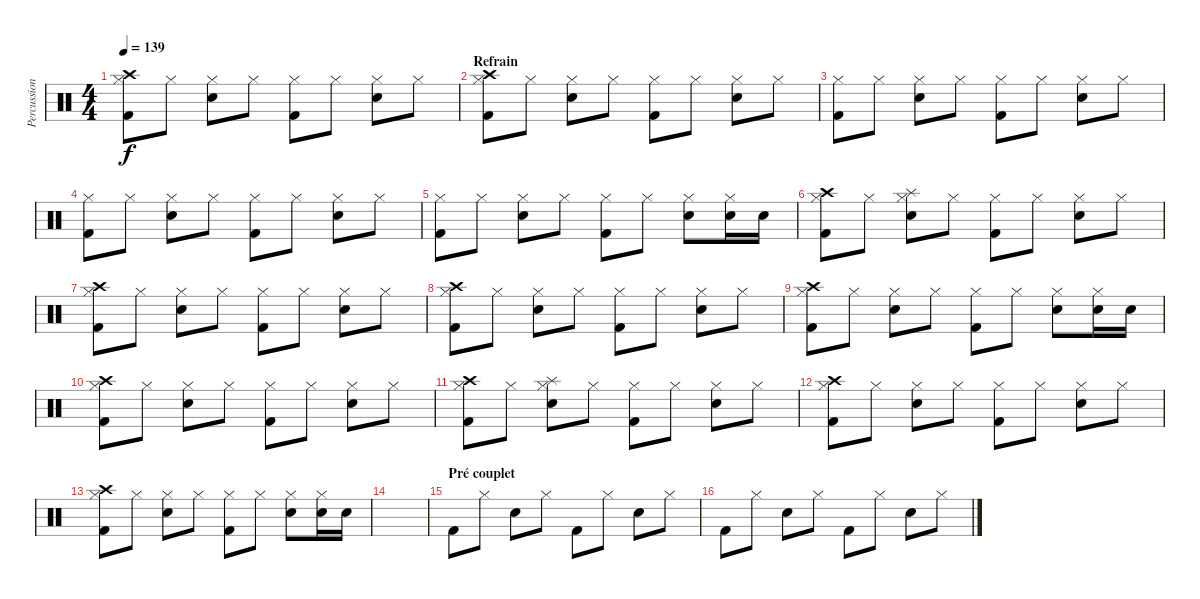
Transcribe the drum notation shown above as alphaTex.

\track ("Percussions" "Percussion") {instrument percussion}
\staff {score}
\articulation defaults
\ts (4 4)
\tempo 139
\clef neutral
\ks c
("Hi-Hat (closed)" "Crash high (hit)" "Kick (hit) 2").8{dy f} "Hi-Hat (closed)".8 ("Hi-Hat (closed)" "Snare (hit) 2").8 "Hi-Hat (closed)".8 ("Hi-Hat (closed)" "Kick (hit) 2").8 "Hi-Hat (closed)".8 ("Hi-Hat (closed)" "Snare (hit) 2").8 "Hi-Hat (closed)".8 |
\section ("" "Refrain")
("Hi-Hat (closed)" "Crash high (hit)" "Kick (hit) 2").8 "Hi-Hat (closed)".8 ("Hi-Hat (closed)" "Snare (hit) 2").8 "Hi-Hat (closed)".8 ("Hi-Hat (closed)" "Kick (hit) 2").8 "Hi-Hat (closed)".8 ("Hi-Hat (closed)" "Snare (hit) 2").8 "Hi-Hat (closed)".8 |
("Hi-Hat (closed)" "Kick (hit) 2").8 "Hi-Hat (closed)".8 ("Hi-Hat (closed)" "Snare (hit) 2").8 "Hi-Hat (closed)".8 ("Hi-Hat (closed)" "Kick (hit) 2").8 "Hi-Hat (closed)".8 ("Hi-Hat (closed)" "Snare (hit) 2").8 "Hi-Hat (closed)".8 |
("Hi-Hat (closed)" "Kick (hit) 2").8 "Hi-Hat (closed)".8 ("Hi-Hat (closed)" "Snare (hit) 2").8 "Hi-Hat (closed)".8 ("Hi-Hat (closed)" "Kick (hit) 2").8 "Hi-Hat (closed)".8 ("Hi-Hat (closed)" "Snare (hit) 2").8 "Hi-Hat (closed)".8 |
("Hi-Hat (closed)" "Kick (hit) 2").8 "Hi-Hat (closed)".8 ("Hi-Hat (closed)" "Snare (hit) 2").8 "Hi-Hat (closed)".8 ("Hi-Hat (closed)" "Kick (hit) 2").8 "Hi-Hat (closed)".8 ("Hi-Hat (closed)" "Snare (hit) 2").8 ("Hi-Hat (closed)" "Snare (hit) 2").16 "Snare (hit) 2".16 |
("Hi-Hat (closed)" "Crash high (hit)" "Kick (hit) 2").8 "Hi-Hat (closed)".8 ("Hi-Hat (closed)" "Splash (hit)" "Snare (hit) 2").8 "Hi-Hat (closed)".8 ("Hi-Hat (closed)" "Kick (hit) 2").8 "Hi-Hat (closed)".8 ("Hi-Hat (closed)" "Snare (hit) 2").8 "Hi-Hat (closed)".8 |
("Hi-Hat (closed)" "Crash high (hit)" "Kick (hit) 2").8 "Hi-Hat (closed)".8 ("Hi-Hat (closed)" "Snare (hit) 2").8 "Hi-Hat (closed)".8 ("Hi-Hat (closed)" "Kick (hit) 2").8 "Hi-Hat (closed)".8 ("Hi-Hat (closed)" "Snare (hit) 2").8 "Hi-Hat (closed)".8 |
("Hi-Hat (closed)" "Crash high (hit)" "Kick (hit) 2").8 "Hi-Hat (closed)".8 ("Hi-Hat (closed)" "Snare (hit) 2").8 "Hi-Hat (closed)".8 ("Hi-Hat (closed)" "Kick (hit) 2").8 "Hi-Hat (closed)".8 ("Hi-Hat (closed)" "Snare (hit) 2").8 "Hi-Hat (closed)".8 |
("Hi-Hat (closed)" "Crash high (hit)" "Kick (hit) 2").8 "Hi-Hat (closed)".8 ("Hi-Hat (closed)" "Snare (hit) 2").8 "Hi-Hat (closed)".8 ("Hi-Hat (closed)" "Kick (hit) 2").8 "Hi-Hat (closed)".8 ("Hi-Hat (closed)" "Snare (hit) 2").8 ("Hi-Hat (closed)" "Snare (hit) 2").16 "Snare (hit) 2".16 |
("Hi-Hat (closed)" "Crash high (hit)" "Kick (hit) 2").8 "Hi-Hat (closed)".8 ("Hi-Hat (closed)" "Snare (hit) 2").8 "Hi-Hat (closed)".8 ("Hi-Hat (closed)" "Kick (hit) 2").8 "Hi-Hat (closed)".8 ("Hi-Hat (closed)" "Snare (hit) 2").8 "Hi-Hat (closed)".8 |
("Hi-Hat (closed)" "Crash high (hit)" "Kick (hit) 2").8 "Hi-Hat (closed)".8 ("Hi-Hat (closed)" "Splash (hit)" "Snare (hit) 2").8 "Hi-Hat (closed)".8 ("Hi-Hat (closed)" "Kick (hit) 2").8 "Hi-Hat (closed)".8 ("Hi-Hat (closed)" "Snare (hit) 2").8 "Hi-Hat (closed)".8 |
("Hi-Hat (closed)" "Crash high (hit)" "Kick (hit) 2").8 "Hi-Hat (closed)".8 ("Hi-Hat (closed)" "Snare (hit) 2").8 "Hi-Hat (closed)".8 ("Hi-Hat (closed)" "Kick (hit) 2").8 "Hi-Hat (closed)".8 ("Hi-Hat (closed)" "Snare (hit) 2").8 "Hi-Hat (closed)".8 |
("Hi-Hat (closed)" "Crash high (hit)" "Kick (hit) 2").8 "Hi-Hat (closed)".8 ("Hi-Hat (closed)" "Snare (hit) 2").8 "Hi-Hat (closed)".8 ("Hi-Hat (closed)" "Kick (hit) 2").8 "Hi-Hat (closed)".8 ("Hi-Hat (closed)" "Snare (hit) 2").8 ("Hi-Hat (closed)" "Snare (hit) 2").16 "Snare (hit) 2".16 |
|
\section ("" "Pré couplet")
"Kick (hit) 2".8 "Hi-Hat (closed)".8 "Snare (hit) 2".8 "Hi-Hat (closed)".8 "Kick (hit) 2".8 "Hi-Hat (closed)".8 "Snare (hit) 2".8 "Hi-Hat (closed)".8 |
"Kick (hit) 2".8 "Hi-Hat (closed)".8 "Snare (hit) 2".8 "Hi-Hat (closed)".8 "Kick (hit) 2".8 "Hi-Hat (closed)".8 "Snare (hit) 2".8 "Hi-Hat (closed)".8
